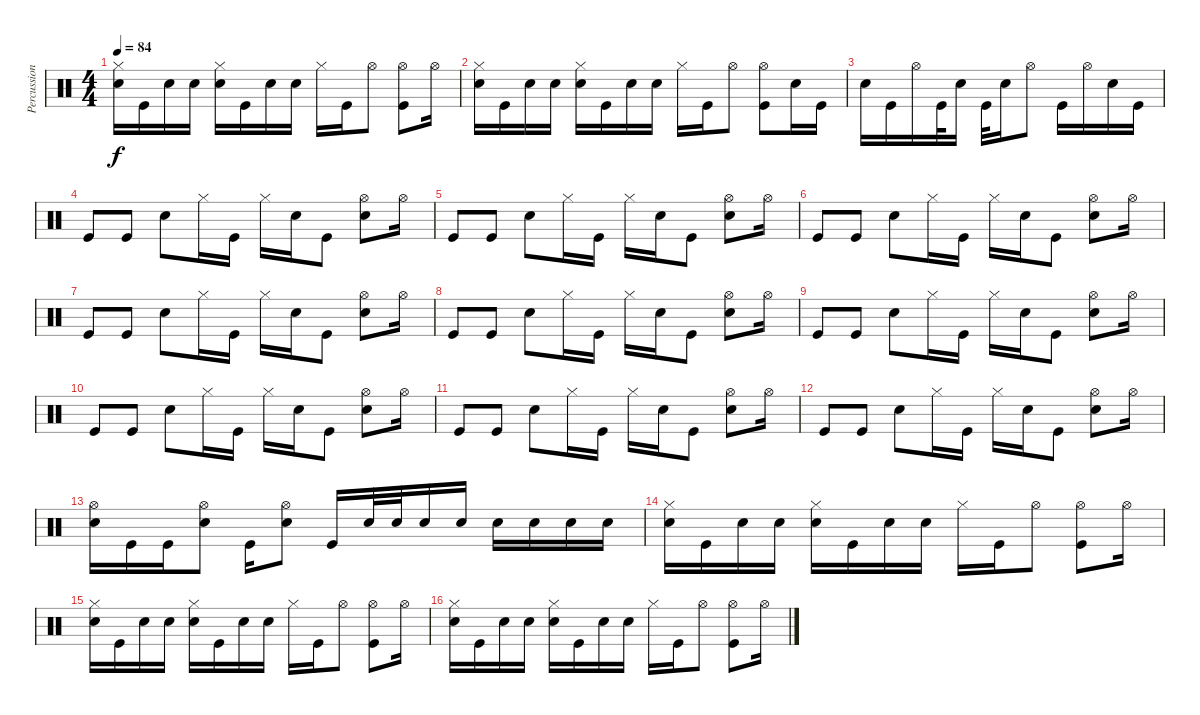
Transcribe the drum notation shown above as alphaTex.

\track ("Percussion" "Percussion") {instrument percussion}
\staff {score}
\articulation defaults
\ts (4 4)
\tempo 84
\clef neutral
\ks c
("Hi-Hat (closed)" "Snare (hit) 2").16{dy f} "Kick (hit)".16 "Snare (hit) 2".16 "Snare (hit) 2".16 ("Hi-Hat (closed)" "Snare (hit) 2").16 "Kick (hit)".16 "Snare (hit) 2".16 "Snare (hit) 2".16 "Hi-Hat (closed)".16 "Kick (hit)".16 "Hi-Hat (open)".8 ("Hi-Hat (open)" "Kick (hit)").8 "Hi-Hat (open)".16 |
("Hi-Hat (closed)" "Snare (hit) 2").16 "Kick (hit)".16 "Snare (hit) 2".16 "Snare (hit) 2".16 ("Hi-Hat (closed)" "Snare (hit) 2").16 "Kick (hit)".16 "Snare (hit) 2".16 "Snare (hit) 2".16 "Hi-Hat (closed)".16 "Kick (hit)".16 "Hi-Hat (open)".8 ("Hi-Hat (open)" "Kick (hit)").8 "Snare (hit) 2".16 "Kick (hit)".16 |
"Snare (hit) 2".16 "Kick (hit)".16 "Hi-Hat (open)".16 "Kick (hit)".32 "Snare (hit) 2".16 "Kick (hit)".32 "Snare (hit) 2".16 "Hi-Hat (open)".8 "Kick (hit)".16 "Hi-Hat (open)".16 "Snare (hit) 2".16 "Kick (hit)".16 |
"Kick (hit)".8 "Kick (hit)".8 "Snare (hit) 2".8 "Hi-Hat (closed)".16 "Kick (hit)".16 "Hi-Hat (closed)".16 "Snare (hit) 2".16 "Kick (hit)".8 ("Hi-Hat (open)" "Snare (hit) 2").8 "Hi-Hat (open)".16 |
"Kick (hit)".8 "Kick (hit)".8 "Snare (hit) 2".8 "Hi-Hat (closed)".16 "Kick (hit)".16 "Hi-Hat (closed)".16 "Snare (hit) 2".16 "Kick (hit)".8 ("Hi-Hat (open)" "Snare (hit) 2").8 "Hi-Hat (open)".16 |
"Kick (hit)".8 "Kick (hit)".8 "Snare (hit) 2".8 "Hi-Hat (closed)".16 "Kick (hit)".16 "Hi-Hat (closed)".16 "Snare (hit) 2".16 "Kick (hit)".8 ("Hi-Hat (open)" "Snare (hit) 2").8 "Hi-Hat (open)".16 |
"Kick (hit)".8 "Kick (hit)".8 "Snare (hit) 2".8 "Hi-Hat (closed)".16 "Kick (hit)".16 "Hi-Hat (closed)".16 "Snare (hit) 2".16 "Kick (hit)".8 ("Hi-Hat (open)" "Snare (hit) 2").8 "Hi-Hat (open)".16 |
"Kick (hit)".8 "Kick (hit)".8 "Snare (hit) 2".8 "Hi-Hat (closed)".16 "Kick (hit)".16 "Hi-Hat (closed)".16 "Snare (hit) 2".16 "Kick (hit)".8 ("Hi-Hat (open)" "Snare (hit) 2").8 "Hi-Hat (open)".16 |
"Kick (hit)".8 "Kick (hit)".8 "Snare (hit) 2".8 "Hi-Hat (closed)".16 "Kick (hit)".16 "Hi-Hat (closed)".16 "Snare (hit) 2".16 "Kick (hit)".8 ("Hi-Hat (open)" "Snare (hit) 2").8 "Hi-Hat (open)".16 |
"Kick (hit)".8 "Kick (hit)".8 "Snare (hit) 2".8 "Hi-Hat (closed)".16 "Kick (hit)".16 "Hi-Hat (closed)".16 "Snare (hit) 2".16 "Kick (hit)".8 ("Hi-Hat (open)" "Snare (hit) 2").8 "Hi-Hat (open)".16 |
"Kick (hit)".8 "Kick (hit)".8 "Snare (hit) 2".8 "Hi-Hat (closed)".16 "Kick (hit)".16 "Hi-Hat (closed)".16 "Snare (hit) 2".16 "Kick (hit)".8 ("Hi-Hat (open)" "Snare (hit) 2").8 "Hi-Hat (open)".16 |
"Kick (hit)".8 "Kick (hit)".8 "Snare (hit) 2".8 "Hi-Hat (closed)".16 "Kick (hit)".16 "Hi-Hat (closed)".16 "Snare (hit) 2".16 "Kick (hit)".8 ("Hi-Hat (open)" "Snare (hit) 2").8 "Hi-Hat (open)".16 |
("Hi-Hat (open)" "Snare (hit) 2").16 "Kick (hit)".16 "Kick (hit)".16 ("Hi-Hat (open)" "Snare (hit) 2").8 "Kick (hit)".16 ("Hi-Hat (open)" "Snare (hit) 2").8 "Kick (hit)".16 "Snare (hit) 2".32 "Snare (hit) 2".32 "Snare (hit) 2".16 "Snare (hit) 2".16 "Snare (hit) 2".16 "Snare (hit) 2".16 "Snare (hit) 2".16 "Snare (hit) 2".16 |
("Hi-Hat (closed)" "Snare (hit) 2").16 "Kick (hit)".16 "Snare (hit) 2".16 "Snare (hit) 2".16 ("Hi-Hat (closed)" "Snare (hit) 2").16 "Kick (hit)".16 "Snare (hit) 2".16 "Snare (hit) 2".16 "Hi-Hat (closed)".16 "Kick (hit)".16 "Hi-Hat (open)".8 ("Hi-Hat (open)" "Kick (hit)").8 "Hi-Hat (open)".16 |
("Hi-Hat (closed)" "Snare (hit) 2").16 "Kick (hit)".16 "Snare (hit) 2".16 "Snare (hit) 2".16 ("Hi-Hat (closed)" "Snare (hit) 2").16 "Kick (hit)".16 "Snare (hit) 2".16 "Snare (hit) 2".16 "Hi-Hat (closed)".16 "Kick (hit)".16 "Hi-Hat (open)".8 ("Hi-Hat (open)" "Kick (hit)").8 "Hi-Hat (open)".16 |
("Hi-Hat (closed)" "Snare (hit) 2").16 "Kick (hit)".16 "Snare (hit) 2".16 "Snare (hit) 2".16 ("Hi-Hat (closed)" "Snare (hit) 2").16 "Kick (hit)".16 "Snare (hit) 2".16 "Snare (hit) 2".16 "Hi-Hat (closed)".16 "Kick (hit)".16 "Hi-Hat (open)".8 ("Hi-Hat (open)" "Kick (hit)").8 "Hi-Hat (open)".16
